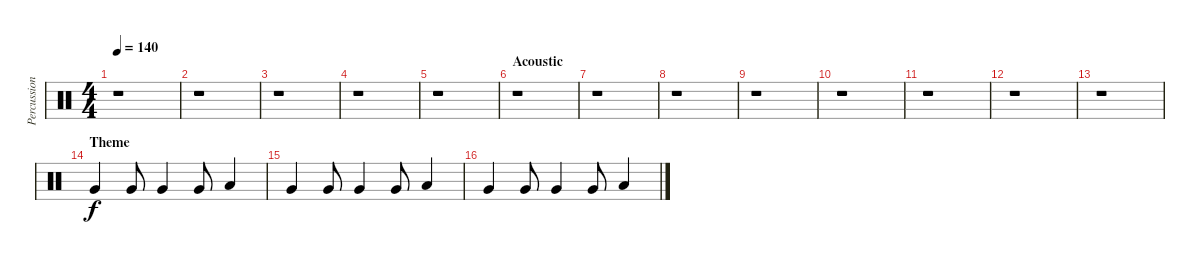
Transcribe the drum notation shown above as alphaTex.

\track ("Percussions" "Percussion") {instrument percussion}
\staff {score}
\articulation defaults
\ts (4 4)
\tempo 140
\clef neutral
\ks c
r.1{dy f} |
r.1 |
r.1 |
r.1 |
r.1 |
\section ("" "Acoustic")
r.1 |
r.1 |
r.1 |
r.1 |
r.1 |
r.1 |
r.1 |
r.1 |
\section ("" "Theme")
"Very Low Tom (hit)".4 "Very Low Tom (hit)".8 "Very Low Tom (hit)".4 "Very Low Tom (hit)".8 "Low Tom (hit)".4 |
"Very Low Tom (hit)".4 "Very Low Tom (hit)".8 "Very Low Tom (hit)".4 "Very Low Tom (hit)".8 "Low Tom (hit)".4 |
"Very Low Tom (hit)".4 "Very Low Tom (hit)".8 "Very Low Tom (hit)".4 "Very Low Tom (hit)".8 "Low Tom (hit)".4
